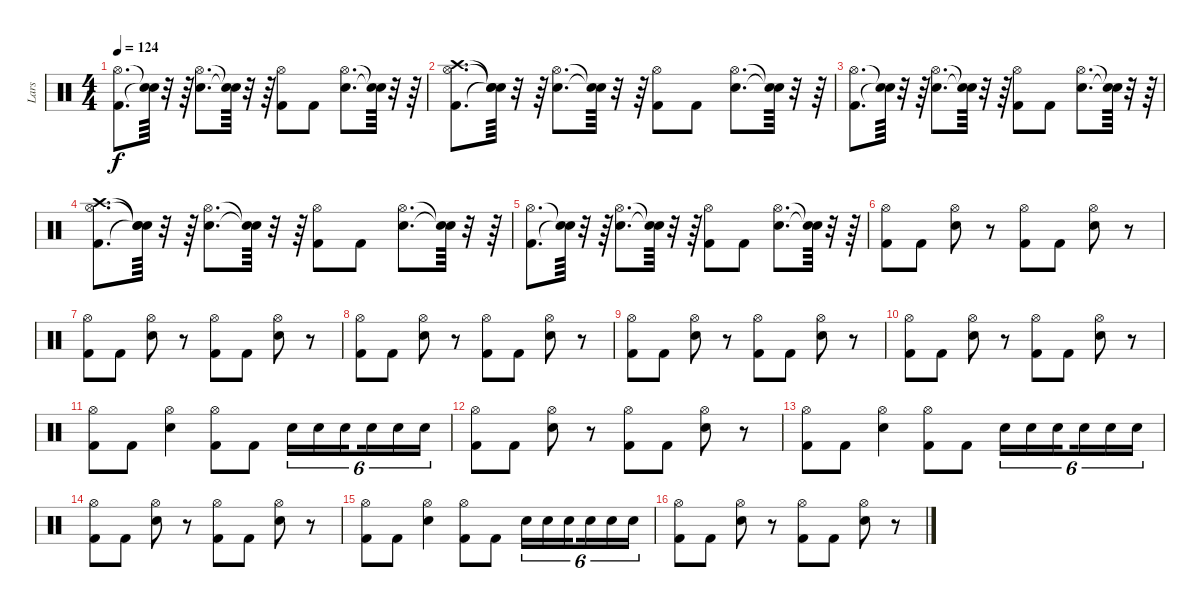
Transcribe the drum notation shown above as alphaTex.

\track ("Lars" "Lars") {instrument percussion}
\staff {score}
\articulation defaults
\ts (4 4)
\tempo 124
\clef neutral
\ks c
("Kick (hit) 2" "Hi-Hat (open)").8{d dy f} ("Snare (hit)"{t} "Snare (hit)"{t}).64 r.32 r.64 ("Snare (hit) 2" "Hi-Hat (open)").8{d} ("Snare (hit)"{t} "Snare (hit)"{t}).64 r.32 r.64 ("Kick (hit) 2" "Hi-Hat (open)").8 "Kick (hit) 2".8 ("Snare (hit) 2" "Hi-Hat (open)").8{d} ("Snare (hit)"{t} "Snare (hit)"{t}).64 r.32 r.64 |
("Kick (hit) 2" "Hi-Hat (open)" "Crash high (hit)").8{d} ("Snare (hit)"{t} "Snare (hit)"{t} "Snare (hit)"{t}).64 r.32 r.64 ("Snare (hit) 2" "Hi-Hat (open)").8{d} ("Snare (hit)"{t} "Snare (hit)"{t}).64 r.32 r.64 ("Kick (hit) 2" "Hi-Hat (open)").8 "Kick (hit) 2".8 ("Snare (hit) 2" "Hi-Hat (open)").8{d} ("Snare (hit)"{t} "Snare (hit)"{t}).64 r.32 r.64 |
("Kick (hit) 2" "Hi-Hat (open)").8{d} ("Snare (hit)"{t} "Snare (hit)"{t}).64 r.32 r.64 ("Snare (hit) 2" "Hi-Hat (open)").8{d} ("Snare (hit)"{t} "Snare (hit)"{t}).64 r.32 r.64 ("Kick (hit) 2" "Hi-Hat (open)").8 "Kick (hit) 2".8 ("Snare (hit) 2" "Hi-Hat (open)").8{d} ("Snare (hit)"{t} "Snare (hit)"{t}).64 r.32 r.64 |
("Kick (hit) 2" "Hi-Hat (open)" "Crash high (hit)").8{d} ("Snare (hit)"{t} "Snare (hit)"{t} "Snare (hit)"{t}).64 r.32 r.64 ("Snare (hit) 2" "Hi-Hat (open)").8{d} ("Snare (hit)"{t} "Snare (hit)"{t}).64 r.32 r.64 ("Kick (hit) 2" "Hi-Hat (open)").8 "Kick (hit) 2".8 ("Snare (hit) 2" "Hi-Hat (open)").8{d} ("Snare (hit)"{t} "Snare (hit)"{t}).64 r.32 r.64 |
("Kick (hit) 2" "Hi-Hat (open)").8{d} ("Snare (hit)"{t} "Snare (hit)"{t}).64 r.32 r.64 ("Snare (hit) 2" "Hi-Hat (open)").8{d} ("Snare (hit)"{t} "Snare (hit)"{t}).64 r.32 r.64 ("Kick (hit) 2" "Hi-Hat (open)").8 "Kick (hit) 2".8 ("Snare (hit) 2" "Hi-Hat (open)").8{d} ("Snare (hit)"{t} "Snare (hit)"{t}).64 r.32 r.64 |
("Kick (hit) 2" "Hi-Hat (open)").8 "Kick (hit) 2".8 ("Snare (hit) 2" "Hi-Hat (open)").8 r.8 ("Kick (hit) 2" "Hi-Hat (open)").8 "Kick (hit) 2".8 ("Snare (hit) 2" "Hi-Hat (open)").8 r.8 |
("Kick (hit) 2" "Hi-Hat (open)").8 "Kick (hit) 2".8 ("Snare (hit) 2" "Hi-Hat (open)").8 r.8 ("Kick (hit) 2" "Hi-Hat (open)").8 "Kick (hit) 2".8 ("Snare (hit) 2" "Hi-Hat (open)").8 r.8 |
("Kick (hit) 2" "Hi-Hat (open)").8 "Kick (hit) 2".8 ("Snare (hit) 2" "Hi-Hat (open)").8 r.8 ("Kick (hit) 2" "Hi-Hat (open)").8 "Kick (hit) 2".8 ("Snare (hit) 2" "Hi-Hat (open)").8 r.8 |
("Kick (hit) 2" "Hi-Hat (open)").8 "Kick (hit) 2".8 ("Snare (hit) 2" "Hi-Hat (open)").8 r.8 ("Kick (hit) 2" "Hi-Hat (open)").8 "Kick (hit) 2".8 ("Snare (hit) 2" "Hi-Hat (open)").8 r.8 |
("Kick (hit) 2" "Hi-Hat (open)").8 "Kick (hit) 2".8 ("Snare (hit) 2" "Hi-Hat (open)").8 r.8 ("Kick (hit) 2" "Hi-Hat (open)").8 "Kick (hit) 2".8 ("Snare (hit) 2" "Hi-Hat (open)").8 r.8 |
("Kick (hit) 2" "Hi-Hat (open)").8 "Kick (hit) 2".8 ("Snare (hit) 2" "Hi-Hat (open)").4 ("Kick (hit) 2" "Hi-Hat (open)").8 "Kick (hit) 2".8 "Snare (hit) 2".16{tu (6 4)} "Snare (hit) 2".16{tu (6 4)} "Snare (hit) 2".16{tu (6 4) beam splitsecondary} "Snare (hit) 2".16{tu (6 4)} "Snare (hit) 2".16{tu (6 4)} "Snare (hit) 2".16{tu (6 4)} |
("Kick (hit) 2" "Hi-Hat (open)").8 "Kick (hit) 2".8 ("Snare (hit) 2" "Hi-Hat (open)").8 r.8 ("Kick (hit) 2" "Hi-Hat (open)").8 "Kick (hit) 2".8 ("Snare (hit) 2" "Hi-Hat (open)").8 r.8 |
("Kick (hit) 2" "Hi-Hat (open)").8 "Kick (hit) 2".8 ("Snare (hit) 2" "Hi-Hat (open)").4 ("Kick (hit) 2" "Hi-Hat (open)").8 "Kick (hit) 2".8 "Snare (hit) 2".16{tu (6 4)} "Snare (hit) 2".16{tu (6 4)} "Snare (hit) 2".16{tu (6 4) beam splitsecondary} "Snare (hit) 2".16{tu (6 4)} "Snare (hit) 2".16{tu (6 4)} "Snare (hit) 2".16{tu (6 4)} |
("Kick (hit) 2" "Hi-Hat (open)").8 "Kick (hit) 2".8 ("Snare (hit) 2" "Hi-Hat (open)").8 r.8 ("Kick (hit) 2" "Hi-Hat (open)").8 "Kick (hit) 2".8 ("Snare (hit) 2" "Hi-Hat (open)").8 r.8 |
("Kick (hit) 2" "Hi-Hat (open)").8 "Kick (hit) 2".8 ("Snare (hit) 2" "Hi-Hat (open)").4 ("Kick (hit) 2" "Hi-Hat (open)").8 "Kick (hit) 2".8 "Snare (hit) 2".16{tu (6 4)} "Snare (hit) 2".16{tu (6 4)} "Snare (hit) 2".16{tu (6 4) beam splitsecondary} "Snare (hit) 2".16{tu (6 4)} "Snare (hit) 2".16{tu (6 4)} "Snare (hit) 2".16{tu (6 4)} |
("Kick (hit) 2" "Hi-Hat (open)").8 "Kick (hit) 2".8 ("Snare (hit) 2" "Hi-Hat (open)").8 r.8 ("Kick (hit) 2" "Hi-Hat (open)").8 "Kick (hit) 2".8 ("Snare (hit) 2" "Hi-Hat (open)").8 r.8
